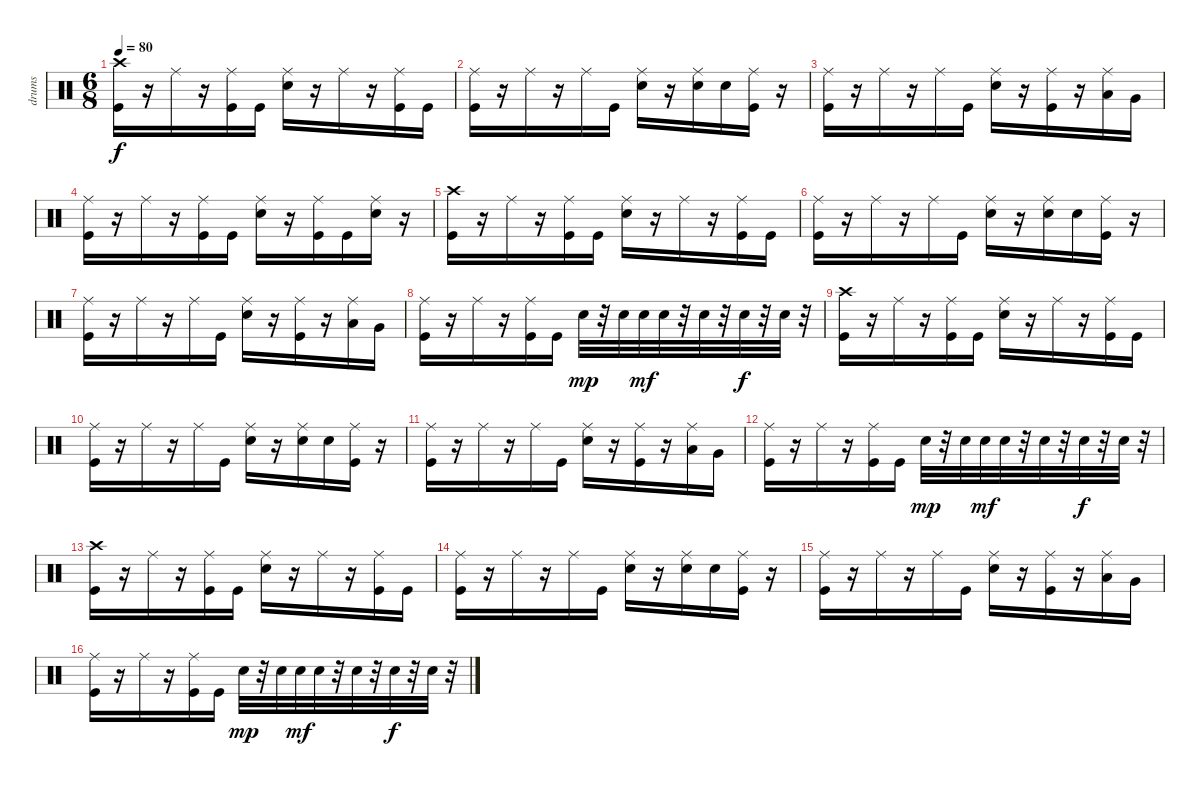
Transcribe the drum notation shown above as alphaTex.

\track ("drums" "drums") {instrument percussion}
\staff {score}
\articulation defaults
\ts (6 8)
\tempo 80
\clef neutral
\ks c
("Kick (hit)" "Crash high (hit)").16{dy f} r.16 "Ride (middle)".16 r.16 ("Kick (hit)" "Ride (middle)").16 "Kick (hit)".16 ("Electric Snare (hit)" "Ride (middle)").16 r.16 "Ride (middle)".16 r.16 ("Ride (middle)" "Kick (hit)").16 "Kick (hit)".16 |
("Ride (middle)" "Kick (hit)").16 r.16 "Ride (middle)".16 r.16 "Ride (middle)".16 "Kick (hit)".16 ("Ride (middle)" "Electric Snare (hit)").16 r.16 ("Ride (middle)" "Electric Snare (hit)").16 "Electric Snare (hit)".16 ("Kick (hit)" "Ride (middle)").16 r.16 |
("Ride (middle)" "Kick (hit)").16 r.16 "Ride (middle)".16 r.16 "Ride (middle)".16 "Kick (hit)".16 ("Electric Snare (hit)" "Ride (middle)").16 r.16 ("Kick (hit)" "Ride (middle)").16 r.16 ("Low Tom (hit)" "Ride (middle)").16 "Very Low Tom (hit)".16 |
("Ride (middle)" "Kick (hit)").16 r.16 "Ride (middle)".16 r.16 ("Kick (hit)" "Ride (middle)").16 "Kick (hit)".16 ("Electric Snare (hit)" "Ride (middle)").16 r.16 ("Ride (middle)" "Kick (hit)").16 "Kick (hit)".16 ("Ride (middle)" "Electric Snare (hit)").16 r.16 |
("Kick (hit)" "Crash high (hit)").16 r.16 "Ride (middle)".16 r.16 ("Kick (hit)" "Ride (middle)").16 "Kick (hit)".16 ("Electric Snare (hit)" "Ride (middle)").16 r.16 "Ride (middle)".16 r.16 ("Kick (hit)" "Ride (middle)").16 "Kick (hit)".16 |
("Ride (middle)" "Kick (hit)").16 r.16 "Ride (middle)".16 r.16 "Ride (middle)".16 "Kick (hit)".16 ("Ride (middle)" "Electric Snare (hit)").16 r.16 ("Ride (middle)" "Electric Snare (hit)").16 "Electric Snare (hit)".16 ("Kick (hit)" "Ride (middle)").16 r.16 |
("Ride (middle)" "Kick (hit)").16 r.16 "Ride (middle)".16 r.16 "Ride (middle)".16 "Kick (hit)".16 ("Electric Snare (hit)" "Ride (middle)").16 r.16 ("Kick (hit)" "Ride (middle)").16 r.16 ("Low Tom (hit)" "Ride (middle)").16 "Very Low Tom (hit)".16 |
("Ride (middle)" "Kick (hit)").16 r.16 "Ride (middle)".16 r.16 ("Kick (hit)" "Ride (middle)").16 "Kick (hit)".16 "Electric Snare (hit)".32{dy mp} r.32 "Electric Snare (hit)".32 "Electric Snare (hit)".32{dy mf} "Electric Snare (hit)".32 r.32 "Electric Snare (hit)".32 r.32 "Electric Snare (hit)".32{dy f} r.32 "Electric Snare (hit)".32 r.32 |
("Crash high (hit)" "Kick (hit)").16 r.16 "Ride (middle)".16 r.16 ("Kick (hit)" "Ride (middle)").16 "Kick (hit)".16 ("Electric Snare (hit)" "Ride (middle)").16 r.16 "Ride (middle)".16 r.16 ("Kick (hit)" "Ride (middle)").16 "Kick (hit)".16 |
("Ride (middle)" "Kick (hit)").16 r.16 "Ride (middle)".16 r.16 "Ride (middle)".16 "Kick (hit)".16 ("Ride (middle)" "Electric Snare (hit)").16 r.16 ("Ride (middle)" "Electric Snare (hit)").16 "Electric Snare (hit)".16 ("Kick (hit)" "Ride (middle)").16 r.16 |
("Ride (middle)" "Kick (hit)").16 r.16 "Ride (middle)".16 r.16 "Ride (middle)".16 "Kick (hit)".16 ("Electric Snare (hit)" "Ride (middle)").16 r.16 ("Kick (hit)" "Ride (middle)").16 r.16 ("Low Tom (hit)" "Ride (middle)").16 "Very Low Tom (hit)".16 |
("Ride (middle)" "Kick (hit)").16 r.16 "Ride (middle)".16 r.16 ("Kick (hit)" "Ride (middle)").16 "Kick (hit)".16 "Electric Snare (hit)".32{dy mp} r.32 "Electric Snare (hit)".32 "Electric Snare (hit)".32{dy mf} "Electric Snare (hit)".32 r.32 "Electric Snare (hit)".32 r.32 "Electric Snare (hit)".32{dy f} r.32 "Electric Snare (hit)".32 r.32 |
("Kick (hit)" "Crash high (hit)").16 r.16 "Ride (middle)".16 r.16 ("Kick (hit)" "Ride (middle)").16 "Kick (hit)".16 ("Electric Snare (hit)" "Ride (middle)").16 r.16 "Ride (middle)".16 r.16 ("Kick (hit)" "Ride (middle)").16 "Kick (hit)".16 |
("Ride (middle)" "Kick (hit)").16 r.16 "Ride (middle)".16 r.16 "Ride (middle)".16 "Kick (hit)".16 ("Ride (middle)" "Electric Snare (hit)").16 r.16 ("Ride (middle)" "Electric Snare (hit)").16 "Electric Snare (hit)".16 ("Kick (hit)" "Ride (middle)").16 r.16 |
("Ride (middle)" "Kick (hit)").16 r.16 "Ride (middle)".16 r.16 "Ride (middle)".16 "Kick (hit)".16 ("Electric Snare (hit)" "Ride (middle)").16 r.16 ("Kick (hit)" "Ride (middle)").16 r.16 ("Low Tom (hit)" "Ride (middle)").16 "Very Low Tom (hit)".16 |
("Ride (middle)" "Kick (hit)").16 r.16 "Ride (middle)".16 r.16 ("Kick (hit)" "Ride (middle)").16 "Kick (hit)".16 "Electric Snare (hit)".32{dy mp} r.32 "Electric Snare (hit)".32 "Electric Snare (hit)".32{dy mf} "Electric Snare (hit)".32 r.32 "Electric Snare (hit)".32 r.32 "Electric Snare (hit)".32{dy f} r.32 "Electric Snare (hit)".32 r.32
